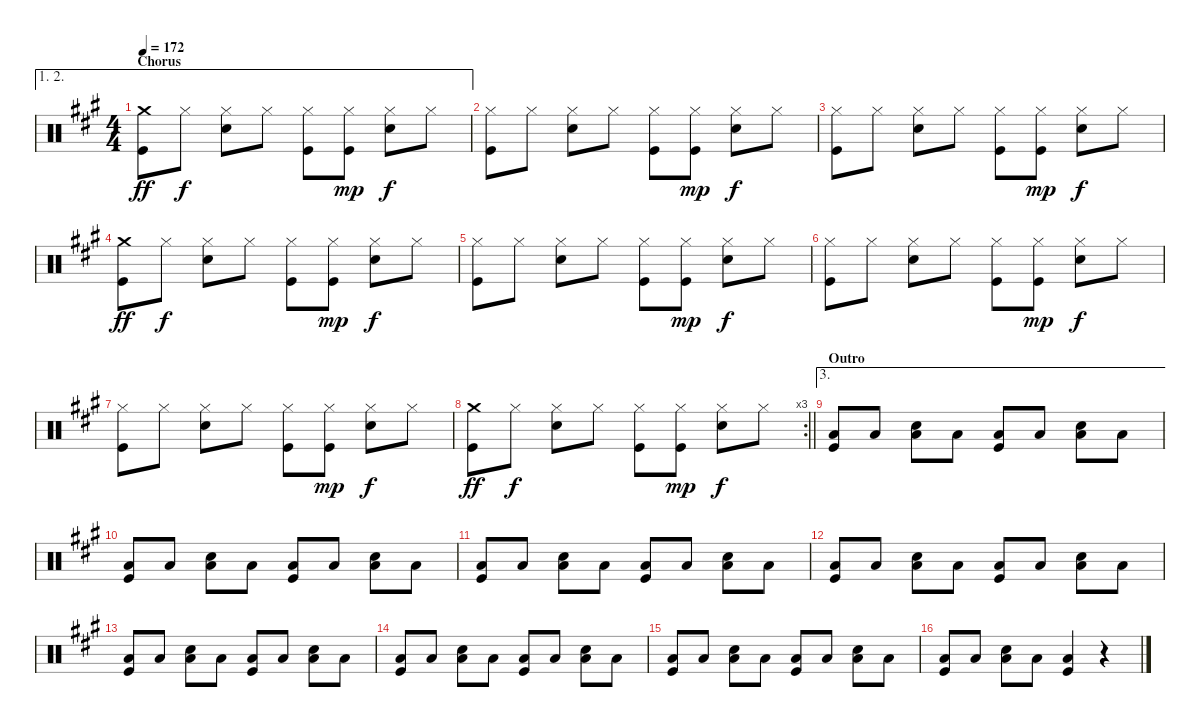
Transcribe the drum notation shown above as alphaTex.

\bracketExtendMode nobrackets
\singleTrackTrackNamePolicy hidden
\multiTrackTrackNamePolicy hidden
\firstSystemTrackNameOrientation horizontal
\otherSystemsTrackNameOrientation horizontal
\track ("Drumkit" "Drumkit") {instrument percussion}
\staff {score}
\articulation defaults
\ae (1 2)
\ts (4 4)
\section ("" "Chorus")
\tempo 172
\clef neutral
\ks a
("Crash medium (hit)" "Kick (hit)").8{dy ff} "Hi-Hat (closed)".8{dy f} ("Hi-Hat (closed)" "Snare (hit) 2").8 "Hi-Hat (closed)".8 ("Hi-Hat (closed)" "Kick (hit)").8 ("Hi-Hat (closed)" "Kick (hit)").8{dy mp} ("Hi-Hat (closed)" "Snare (hit) 2").8{dy f} "Hi-Hat (closed)".8 |
("Hi-Hat (closed)" "Kick (hit)").8 "Hi-Hat (closed)".8 ("Hi-Hat (closed)" "Snare (hit) 2").8 "Hi-Hat (closed)".8 ("Hi-Hat (closed)" "Kick (hit)").8 ("Hi-Hat (closed)" "Kick (hit)").8{dy mp} ("Hi-Hat (closed)" "Snare (hit) 2").8{dy f} "Hi-Hat (closed)".8 |
("Hi-Hat (closed)" "Kick (hit)").8 "Hi-Hat (closed)".8 ("Hi-Hat (closed)" "Snare (hit) 2").8 "Hi-Hat (closed)".8 ("Hi-Hat (closed)" "Kick (hit)").8 ("Hi-Hat (closed)" "Kick (hit)").8{dy mp} ("Hi-Hat (closed)" "Snare (hit) 2").8{dy f} "Hi-Hat (closed)".8 |
("Crash medium (hit)" "Kick (hit)").8{dy ff} "Hi-Hat (closed)".8{dy f} ("Hi-Hat (closed)" "Snare (hit) 2").8 "Hi-Hat (closed)".8 ("Hi-Hat (closed)" "Kick (hit)").8 ("Hi-Hat (closed)" "Kick (hit)").8{dy mp} ("Hi-Hat (closed)" "Snare (hit) 2").8{dy f} "Hi-Hat (closed)".8 |
("Hi-Hat (closed)" "Kick (hit)").8 "Hi-Hat (closed)".8 ("Hi-Hat (closed)" "Snare (hit) 2").8 "Hi-Hat (closed)".8 ("Hi-Hat (closed)" "Kick (hit)").8 ("Hi-Hat (closed)" "Kick (hit)").8{dy mp} ("Hi-Hat (closed)" "Snare (hit) 2").8{dy f} "Hi-Hat (closed)".8 |
("Hi-Hat (closed)" "Kick (hit)").8 "Hi-Hat (closed)".8 ("Hi-Hat (closed)" "Snare (hit) 2").8 "Hi-Hat (closed)".8 ("Hi-Hat (closed)" "Kick (hit)").8 ("Hi-Hat (closed)" "Kick (hit)").8{dy mp} ("Hi-Hat (closed)" "Snare (hit) 2").8{dy f} "Hi-Hat (closed)".8 |
("Hi-Hat (closed)" "Kick (hit)").8 "Hi-Hat (closed)".8 ("Hi-Hat (closed)" "Snare (hit) 2").8 "Hi-Hat (closed)".8 ("Hi-Hat (closed)" "Kick (hit)").8 ("Hi-Hat (closed)" "Kick (hit)").8{dy mp} ("Hi-Hat (closed)" "Snare (hit) 2").8{dy f} "Hi-Hat (closed)".8 |
\rc 3
\barLineRight lightlight
("Crash medium (hit)" "Kick (hit)").8{dy ff} "Hi-Hat (closed)".8{dy f} ("Hi-Hat (closed)" "Snare (hit) 2").8 "Hi-Hat (closed)".8 ("Hi-Hat (closed)" "Kick (hit)").8 ("Hi-Hat (closed)" "Kick (hit)").8{dy mp} ("Hi-Hat (closed)" "Snare (hit) 2").8{dy f} "Hi-Hat (closed)".8 |
\ae 3
\section ("" "Outro")
("Kick (hit)" "Low Tom (hit)").8 "Low Tom (hit)".8 ("Snare (hit) 2" "Low Tom (hit)").8 "Low Tom (hit)".8 ("Kick (hit)" "Low Tom (hit)").8 "Low Tom (hit)".8 ("Snare (hit) 2" "Low Tom (hit)").8 "Low Tom (hit)".8 |
("Kick (hit)" "Low Tom (hit)").8 "Low Tom (hit)".8 ("Snare (hit) 2" "Low Tom (hit)").8 "Low Tom (hit)".8 ("Kick (hit)" "Low Tom (hit)").8 "Low Tom (hit)".8 ("Snare (hit) 2" "Low Tom (hit)").8 "Low Tom (hit)".8 |
("Kick (hit)" "Low Tom (hit)").8 "Low Tom (hit)".8 ("Snare (hit) 2" "Low Tom (hit)").8 "Low Tom (hit)".8 ("Kick (hit)" "Low Tom (hit)").8 "Low Tom (hit)".8 ("Snare (hit) 2" "Low Tom (hit)").8 "Low Tom (hit)".8 |
("Kick (hit)" "Low Tom (hit)").8 "Low Tom (hit)".8 ("Snare (hit) 2" "Low Tom (hit)").8 "Low Tom (hit)".8 ("Kick (hit)" "Low Tom (hit)").8 "Low Tom (hit)".8 ("Snare (hit) 2" "Low Tom (hit)").8 "Low Tom (hit)".8 |
("Kick (hit)" "Low Tom (hit)").8 "Low Tom (hit)".8 ("Snare (hit) 2" "Low Tom (hit)").8 "Low Tom (hit)".8 ("Kick (hit)" "Low Tom (hit)").8 "Low Tom (hit)".8 ("Snare (hit) 2" "Low Tom (hit)").8 "Low Tom (hit)".8 |
("Kick (hit)" "Low Tom (hit)").8 "Low Tom (hit)".8 ("Snare (hit) 2" "Low Tom (hit)").8 "Low Tom (hit)".8 ("Kick (hit)" "Low Tom (hit)").8 "Low Tom (hit)".8 ("Snare (hit) 2" "Low Tom (hit)").8 "Low Tom (hit)".8 |
("Kick (hit)" "Low Tom (hit)").8 "Low Tom (hit)".8 ("Snare (hit) 2" "Low Tom (hit)").8 "Low Tom (hit)".8 ("Kick (hit)" "Low Tom (hit)").8 "Low Tom (hit)".8 ("Snare (hit) 2" "Low Tom (hit)").8 "Low Tom (hit)".8 |
("Kick (hit)" "Low Tom (hit)").8 "Low Tom (hit)".8 ("Snare (hit) 2" "Low Tom (hit)").8 "Low Tom (hit)".8 ("Kick (hit)" "Low Tom (hit)").4 r.4
